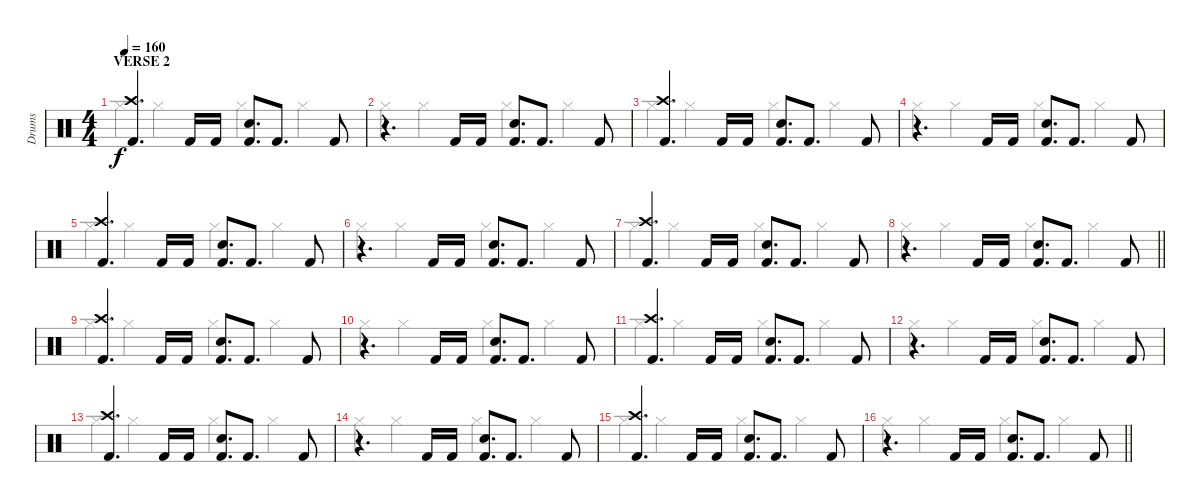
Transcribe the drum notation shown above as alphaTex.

\track ("Drums" "Drums") {instrument percussion}
\staff {score}
\articulation defaults
\voice
\ts (4 4)
\section ("" "VERSE 2")
\tempo 160
\clef neutral
\ks c
("Crash high (hit)" "Kick (hit) 2").4{d dy f} "Kick (hit) 2".16 "Kick (hit) 2".16 ("Snare (hit) 2" "Kick (hit) 2").8{d} "Kick (hit) 2".8{d} "Kick (hit) 2".8 |
r.4{d} "Kick (hit) 2".16 "Kick (hit) 2".16 ("Snare (hit) 2" "Kick (hit) 2").8{d} "Kick (hit) 2".8{d} "Kick (hit) 2".8 |
("Crash high (hit)" "Kick (hit) 2").4{d} "Kick (hit) 2".16 "Kick (hit) 2".16 ("Snare (hit) 2" "Kick (hit) 2").8{d} "Kick (hit) 2".8{d} "Kick (hit) 2".8 |
r.4{d} "Kick (hit) 2".16 "Kick (hit) 2".16 ("Snare (hit) 2" "Kick (hit) 2").8{d} "Kick (hit) 2".8{d} "Kick (hit) 2".8 |
("Crash high (hit)" "Kick (hit) 2").4{d} "Kick (hit) 2".16 "Kick (hit) 2".16 ("Snare (hit) 2" "Kick (hit) 2").8{d} "Kick (hit) 2".8{d} "Kick (hit) 2".8 |
r.4{d} "Kick (hit) 2".16 "Kick (hit) 2".16 ("Snare (hit) 2" "Kick (hit) 2").8{d} "Kick (hit) 2".8{d} "Kick (hit) 2".8 |
("Crash high (hit)" "Kick (hit) 2").4{d} "Kick (hit) 2".16 "Kick (hit) 2".16 ("Snare (hit) 2" "Kick (hit) 2").8{d} "Kick (hit) 2".8{d} "Kick (hit) 2".8 |
\barLineRight lightlight
r.4{d} "Kick (hit) 2".16 "Kick (hit) 2".16 ("Snare (hit) 2" "Kick (hit) 2").8{d} "Kick (hit) 2".8{d} "Kick (hit) 2".8 |
("Crash high (hit)" "Kick (hit) 2").4{d} "Kick (hit) 2".16 "Kick (hit) 2".16 ("Snare (hit) 2" "Kick (hit) 2").8{d} "Kick (hit) 2".8{d} "Kick (hit) 2".8 |
r.4{d} "Kick (hit) 2".16 "Kick (hit) 2".16 ("Snare (hit) 2" "Kick (hit) 2").8{d} "Kick (hit) 2".8{d} "Kick (hit) 2".8 |
("Crash high (hit)" "Kick (hit) 2").4{d} "Kick (hit) 2".16 "Kick (hit) 2".16 ("Snare (hit) 2" "Kick (hit) 2").8{d} "Kick (hit) 2".8{d} "Kick (hit) 2".8 |
r.4{d} "Kick (hit) 2".16 "Kick (hit) 2".16 ("Snare (hit) 2" "Kick (hit) 2").8{d} "Kick (hit) 2".8{d} "Kick (hit) 2".8 |
("Crash high (hit)" "Kick (hit) 2").4{d} "Kick (hit) 2".16 "Kick (hit) 2".16 ("Snare (hit) 2" "Kick (hit) 2").8{d} "Kick (hit) 2".8{d} "Kick (hit) 2".8 |
r.4{d} "Kick (hit) 2".16 "Kick (hit) 2".16 ("Snare (hit) 2" "Kick (hit) 2").8{d} "Kick (hit) 2".8{d} "Kick (hit) 2".8 |
("Crash high (hit)" "Kick (hit) 2").4{d} "Kick (hit) 2".16 "Kick (hit) 2".16 ("Snare (hit) 2" "Kick (hit) 2").8{d} "Kick (hit) 2".8{d} "Kick (hit) 2".8 |
\barLineRight lightlight
r.4{d} "Kick (hit) 2".16 "Kick (hit) 2".16 ("Snare (hit) 2" "Kick (hit) 2").8{d} "Kick (hit) 2".8{d} "Kick (hit) 2".8
\voice
\clef neutral
\ottava regular
\simile none
\ks c "Hi-Hat (closed)".4{dy f} "Hi-Hat (closed)".4 "Hi-Hat (closed)".4 "Hi-Hat (closed)".4
|
"Hi-Hat (closed)".4 "Hi-Hat (closed)".4 "Hi-Hat (closed)".4 "Hi-Hat (closed)".4 |
"Hi-Hat (closed)".4 "Hi-Hat (closed)".4 "Hi-Hat (closed)".4 "Hi-Hat (closed)".4 |
"Hi-Hat (closed)".4 "Hi-Hat (closed)".4 "Hi-Hat (closed)".4 "Hi-Hat (closed)".4 |
"Hi-Hat (closed)".4 "Hi-Hat (closed)".4 "Hi-Hat (closed)".4 "Hi-Hat (closed)".4 |
"Hi-Hat (closed)".4 "Hi-Hat (closed)".4 "Hi-Hat (closed)".4 "Hi-Hat (closed)".4 |
"Hi-Hat (closed)".4 "Hi-Hat (closed)".4 "Hi-Hat (closed)".4 "Hi-Hat (closed)".4 |
\barLineRight lightlight "Hi-Hat (closed)".4 "Hi-Hat (closed)".4 "Hi-Hat (closed)".4 "Hi-Hat (closed)".4
|
"Hi-Hat (closed)".4 "Hi-Hat (closed)".4 "Hi-Hat (closed)".4 "Hi-Hat (closed)".4 |
"Hi-Hat (closed)".4 "Hi-Hat (closed)".4 "Hi-Hat (closed)".4 "Hi-Hat (closed)".4 |
"Hi-Hat (closed)".4 "Hi-Hat (closed)".4 "Hi-Hat (closed)".4 "Hi-Hat (closed)".4 |
"Hi-Hat (closed)".4 "Hi-Hat (closed)".4 "Hi-Hat (closed)".4 "Hi-Hat (closed)".4 |
"Hi-Hat (closed)".4 "Hi-Hat (closed)".4 "Hi-Hat (closed)".4 "Hi-Hat (closed)".4 |
"Hi-Hat (closed)".4 "Hi-Hat (closed)".4 "Hi-Hat (closed)".4 "Hi-Hat (closed)".4 |
"Hi-Hat (closed)".4 "Hi-Hat (closed)".4 "Hi-Hat (closed)".4 "Hi-Hat (closed)".4 |
\barLineRight lightlight "Hi-Hat (closed)".4 "Hi-Hat (closed)".4 "Hi-Hat (closed)".4 "Hi-Hat (closed)".4
